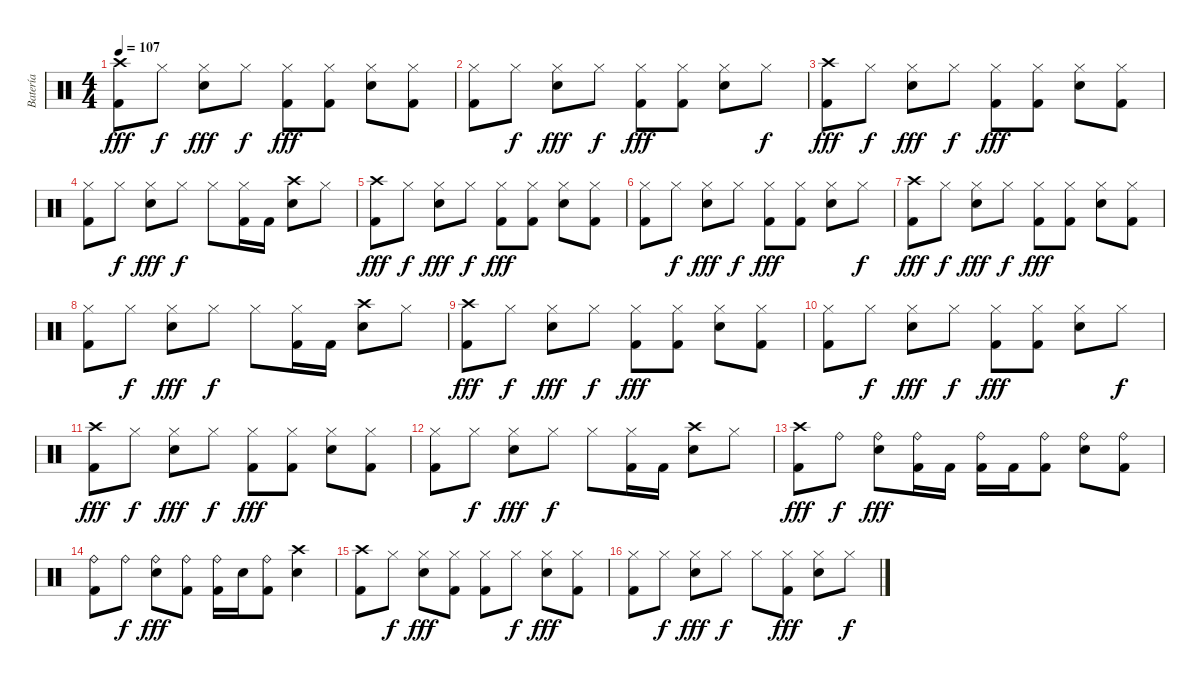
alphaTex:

\track ("Batería" "Batería") {instrument percussion}
\staff {score}
\articulation defaults
\ts (4 4)
\tempo 107
\clef neutral
\ks c
("Crash high (hit)" "Kick (hit) 2").8{dy fff} "Hi-Hat (closed)".8{dy f} ("Hi-Hat (closed)" "Electric Snare (hit)").8{dy fff} "Hi-Hat (closed)".8{dy f} ("Hi-Hat (closed)" "Kick (hit) 2").8{dy fff} ("Hi-Hat (closed)" "Kick (hit) 2").8 ("Hi-Hat (closed)" "Electric Snare (hit)").8 ("Hi-Hat (closed)" "Kick (hit) 2").8 |
("Hi-Hat (closed)" "Kick (hit) 2").8 "Hi-Hat (closed)".8{dy f} ("Hi-Hat (closed)" "Electric Snare (hit)").8{dy fff} "Hi-Hat (closed)".8{dy f} ("Hi-Hat (closed)" "Kick (hit) 2").8{dy fff} ("Hi-Hat (closed)" "Kick (hit) 2").8 ("Hi-Hat (closed)" "Electric Snare (hit)").8 "Hi-Hat (closed)".8{dy f} |
("Crash high (hit)" "Kick (hit) 2").8{dy fff} "Hi-Hat (closed)".8{dy f} ("Hi-Hat (closed)" "Electric Snare (hit)").8{dy fff} "Hi-Hat (closed)".8{dy f} ("Hi-Hat (closed)" "Kick (hit) 2").8{dy fff} ("Hi-Hat (closed)" "Kick (hit) 2").8 ("Hi-Hat (closed)" "Electric Snare (hit)").8 ("Hi-Hat (closed)" "Kick (hit) 2").8 |
("Hi-Hat (closed)" "Kick (hit) 2").8 "Hi-Hat (closed)".8{dy f} ("Hi-Hat (closed)" "Electric Snare (hit)").8{dy fff} "Hi-Hat (closed)".8{dy f} "Hi-Hat (closed)".8 ("Hi-Hat (closed)" "Kick (hit) 2").16 "Kick (hit) 2".16 ("Crash high (hit)" "Electric Snare (hit)").8 "Hi-Hat (closed)".8 |
("Crash high (hit)" "Kick (hit) 2").8{dy fff} "Hi-Hat (closed)".8{dy f} ("Hi-Hat (closed)" "Electric Snare (hit)").8{dy fff} "Hi-Hat (closed)".8{dy f} ("Hi-Hat (closed)" "Kick (hit) 2").8{dy fff} ("Hi-Hat (closed)" "Kick (hit) 2").8 ("Hi-Hat (closed)" "Electric Snare (hit)").8 ("Hi-Hat (closed)" "Kick (hit) 2").8 |
("Hi-Hat (closed)" "Kick (hit) 2").8 "Hi-Hat (closed)".8{dy f} ("Hi-Hat (closed)" "Electric Snare (hit)").8{dy fff} "Hi-Hat (closed)".8{dy f} ("Hi-Hat (closed)" "Kick (hit) 2").8{dy fff} ("Hi-Hat (closed)" "Kick (hit) 2").8 ("Hi-Hat (closed)" "Electric Snare (hit)").8 "Hi-Hat (closed)".8{dy f} |
("Crash high (hit)" "Kick (hit) 2").8{dy fff} "Hi-Hat (closed)".8{dy f} ("Hi-Hat (closed)" "Electric Snare (hit)").8{dy fff} "Hi-Hat (closed)".8{dy f} ("Hi-Hat (closed)" "Kick (hit) 2").8{dy fff} ("Hi-Hat (closed)" "Kick (hit) 2").8 ("Hi-Hat (closed)" "Electric Snare (hit)").8 ("Hi-Hat (closed)" "Kick (hit) 2").8 |
("Hi-Hat (closed)" "Kick (hit) 2").8 "Hi-Hat (closed)".8{dy f} ("Hi-Hat (closed)" "Electric Snare (hit)").8{dy fff} "Hi-Hat (closed)".8{dy f} "Hi-Hat (closed)".8 ("Hi-Hat (closed)" "Kick (hit) 2").16 "Kick (hit) 2".16 ("Crash high (hit)" "Electric Snare (hit)").8 "Hi-Hat (closed)".8 |
("Crash high (hit)" "Kick (hit) 2").8{dy fff} "Hi-Hat (closed)".8{dy f} ("Hi-Hat (closed)" "Electric Snare (hit)").8{dy fff} "Hi-Hat (closed)".8{dy f} ("Hi-Hat (closed)" "Kick (hit) 2").8{dy fff} ("Hi-Hat (closed)" "Kick (hit) 2").8 ("Hi-Hat (closed)" "Electric Snare (hit)").8 ("Hi-Hat (closed)" "Kick (hit) 2").8 |
("Hi-Hat (closed)" "Kick (hit) 2").8 "Hi-Hat (closed)".8{dy f} ("Hi-Hat (closed)" "Electric Snare (hit)").8{dy fff} "Hi-Hat (closed)".8{dy f} ("Hi-Hat (closed)" "Kick (hit) 2").8{dy fff} ("Hi-Hat (closed)" "Kick (hit) 2").8 ("Hi-Hat (closed)" "Electric Snare (hit)").8 "Hi-Hat (closed)".8{dy f} |
("Crash high (hit)" "Kick (hit) 2").8{dy fff} "Hi-Hat (closed)".8{dy f} ("Hi-Hat (closed)" "Electric Snare (hit)").8{dy fff} "Hi-Hat (closed)".8{dy f} ("Hi-Hat (closed)" "Kick (hit) 2").8{dy fff} ("Hi-Hat (closed)" "Kick (hit) 2").8 ("Hi-Hat (closed)" "Electric Snare (hit)").8 ("Hi-Hat (closed)" "Kick (hit) 2").8 |
("Hi-Hat (closed)" "Kick (hit) 2").8 "Hi-Hat (closed)".8{dy f} ("Hi-Hat (closed)" "Electric Snare (hit)").8{dy fff} "Hi-Hat (closed)".8{dy f} "Hi-Hat (closed)".8 ("Hi-Hat (closed)" "Kick (hit) 2").16 "Kick (hit) 2".16 ("Crash high (hit)" "Electric Snare (hit)").8 "Hi-Hat (closed)".8 |
("Crash high (hit)" "Kick (hit) 2").8{dy fff} "Ride (bell)".8{dy f} ("Ride (bell)" "Electric Snare (hit)").8{dy fff} ("Ride (bell)" "Kick (hit) 2").16 "Kick (hit) 2".16 ("Ride (bell)" "Kick (hit) 2").16 "Kick (hit) 2".16 ("Ride (bell)" "Kick (hit) 2").8 ("Ride (bell)" "Electric Snare (hit)").8 ("Ride (bell)" "Kick (hit) 2").8 |
("Ride (bell)" "Kick (hit) 2").8 "Ride (bell)".8{dy f} ("Ride (bell)" "Electric Snare (hit)").8{dy fff} ("Ride (bell)" "Kick (hit) 2").8 ("Ride (bell)" "Kick (hit) 2").16 "Electric Snare (hit)".16 ("Ride (bell)" "Kick (hit) 2").8 ("Crash high (hit)" "Electric Snare (hit)").4 |
("Crash high (hit)" "Kick (hit) 2").8 "Hi-Hat (closed)".8{dy f} ("Hi-Hat (closed)" "Electric Snare (hit)").8{dy fff} ("Hi-Hat (closed)" "Kick (hit) 2").8 ("Hi-Hat (closed)" "Kick (hit) 2").8 "Hi-Hat (closed)".8{dy f} ("Hi-Hat (closed)" "Electric Snare (hit)").8{dy fff} ("Hi-Hat (closed)" "Kick (hit) 2").8 |
("Hi-Hat (closed)" "Kick (hit) 2").8 "Hi-Hat (closed)".8{dy f} ("Hi-Hat (closed)" "Electric Snare (hit)").8{dy fff} "Hi-Hat (closed)".8{dy f} "Hi-Hat (closed)".8 ("Hi-Hat (closed)" "Kick (hit) 2").8{dy fff} ("Hi-Hat (closed)" "Electric Snare (hit)").8 "Hi-Hat (closed)".8{dy f}
